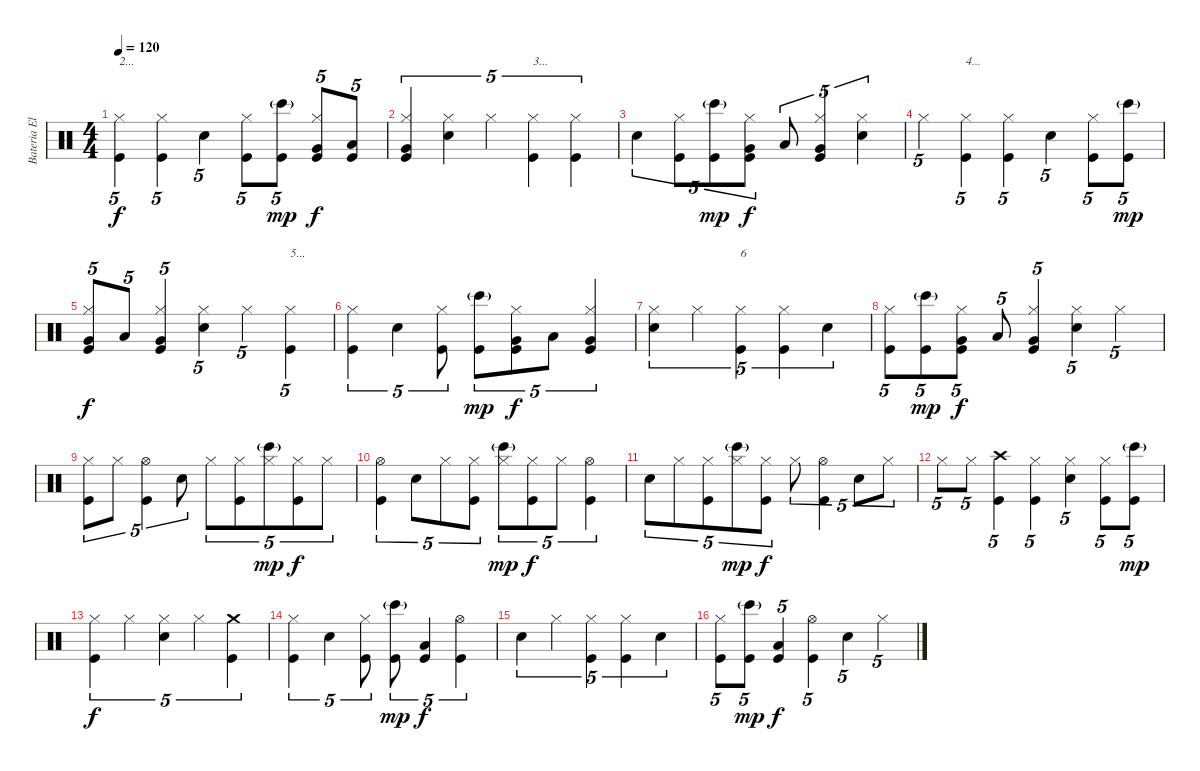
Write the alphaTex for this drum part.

\track ("Bateria Eletrônica" "Bateria El") {instrument percussion}
\staff {score}
\articulation defaults
\ts (4 4)
\tempo 120
\clef neutral
\ks c
("Kick (hit)" "Hi-Hat (closed)").4{tu (5 4) txt "2..." dy f} ("Kick (hit)" "Hi-Hat (closed)").4{tu (5 4)} "Snare (hit) 2".4{tu (5 4)} ("Kick (hit)" "Hi-Hat (closed)").8{tu (5 4)} ("Kick (hit)" "Bongo High (hit)"{g}).8{tu (5 4) dy mp} ("Kick (hit)" "Hi-Hat (closed)" "Very Low Tom (hit)").8{tu (5 4) dy f} ("Kick (hit)" "Low Tom (hit)").8{tu (5 4)} |
("Kick (hit)" "Hi-Hat (closed)" "Very Low Tom (hit)").4{tu (5 4)} ("Snare (hit) 2" "Hi-Hat (closed)").4{tu (5 4)} "Hi-Hat (closed)".4{tu (5 4)} ("Kick (hit)" "Hi-Hat (closed)").4{tu (5 4) txt "3..."} ("Kick (hit)" "Hi-Hat (closed)").4{tu (5 4)} |
"Snare (hit) 2".4{tu (5 4)} ("Kick (hit)" "Hi-Hat (closed)").8{tu (5 4)} ("Kick (hit)" "Bongo High (hit)"{g}).8{tu (5 4) dy mp} ("Kick (hit)" "Hi-Hat (closed)" "Very Low Tom (hit)").8{tu (5 4) dy f} "Low Tom (hit)".8{tu (5 4)} ("Kick (hit)" "Hi-Hat (closed)" "Very Low Tom (hit)").4{tu (5 4)} ("Snare (hit) 2" "Hi-Hat (closed)").4{tu (5 4)} |
"Hi-Hat (closed)".4{tu (5 4)} ("Kick (hit)" "Hi-Hat (closed)").4{tu (5 4) txt "4..."} ("Kick (hit)" "Hi-Hat (closed)").4{tu (5 4)} "Snare (hit) 2".4{tu (5 4)} ("Kick (hit)" "Hi-Hat (closed)").8{tu (5 4)} ("Kick (hit)" "Bongo High (hit)"{g}).8{tu (5 4) dy mp} |
("Kick (hit)" "Hi-Hat (closed)" "Very Low Tom (hit)").8{tu (5 4) dy f} "Low Tom (hit)".8{tu (5 4)} ("Kick (hit)" "Hi-Hat (closed)" "Very Low Tom (hit)").4{tu (5 4)} ("Snare (hit) 2" "Hi-Hat (closed)").4{tu (5 4)} "Hi-Hat (closed)".4{tu (5 4)} ("Kick (hit)" "Hi-Hat (closed)").4{tu (5 4) txt "5..."} |
("Kick (hit)" "Hi-Hat (closed)").4{tu (5 4)} "Snare (hit) 2".4{tu (5 4)} ("Kick (hit)" "Hi-Hat (closed)").8{tu (5 4)} ("Kick (hit)" "Bongo High (hit)"{g}).8{tu (5 4) dy mp} ("Kick (hit)" "Hi-Hat (closed)" "Very Low Tom (hit)").8{tu (5 4) dy f} "Low Tom (hit)".8{tu (5 4)} ("Kick (hit)" "Hi-Hat (closed)" "Very Low Tom (hit)").4{tu (5 4)} |
("Snare (hit) 2" "Hi-Hat (closed)").4{tu (5 4)} "Hi-Hat (closed)".4{tu (5 4)} ("Kick (hit)" "Hi-Hat (closed)").4{tu (5 4) txt "6"} ("Kick (hit)" "Hi-Hat (closed)").4{tu (5 4)} "Snare (hit) 2".4{tu (5 4)} |
("Kick (hit)" "Hi-Hat (closed)").8{tu (5 4)} ("Kick (hit)" "Bongo High (hit)"{g}).8{tu (5 4) dy mp} ("Kick (hit)" "Hi-Hat (closed)" "Very Low Tom (hit)").8{tu (5 4) dy f} "Low Tom (hit)".8{tu (5 4)} ("Kick (hit)" "Hi-Hat (closed)" "Very Low Tom (hit)").4{tu (5 4)} ("Snare (hit) 2" "Hi-Hat (closed)").4{tu (5 4)} "Hi-Hat (closed)".4{tu (5 4)} |
("Kick (hit)" "Hi-Hat (closed)").8{tu (5 4)} "Hi-Hat (closed)".8{tu (5 4)} ("Kick (hit)" "Hi-Hat (open)").4{tu (5 4)} "Snare (hit) 2".8{tu (5 4)} "Hi-Hat (closed)".8{tu (5 4)} ("Kick (hit)" "Hi-Hat (closed)").8{tu (5 4)} ("Bongo High (hit)"{g} "Hi-Hat (closed)").8{tu (5 4) dy mp} ("Kick (hit)" "Hi-Hat (closed)").8{tu (5 4) dy f} "Hi-Hat (closed)".8{tu (5 4)} |
("Kick (hit)" "Hi-Hat (open)").4{tu (5 4)} "Snare (hit) 2".8{tu (5 4)} "Hi-Hat (closed)".8{tu (5 4)} ("Kick (hit)" "Hi-Hat (closed)").8{tu (5 4)} ("Bongo High (hit)"{g} "Hi-Hat (closed)").8{tu (5 4) dy mp} ("Kick (hit)" "Hi-Hat (closed)").8{tu (5 4) dy f} "Hi-Hat (closed)".8{tu (5 4)} ("Kick (hit)" "Hi-Hat (open)").4{tu (5 4)} |
"Snare (hit) 2".8{tu (5 4)} "Hi-Hat (closed)".8{tu (5 4)} ("Kick (hit)" "Hi-Hat (closed)").8{tu (5 4)} ("Bongo High (hit)"{g} "Hi-Hat (closed)").8{tu (5 4) dy mp} ("Kick (hit)" "Hi-Hat (closed)").8{tu (5 4) dy f} "Hi-Hat (closed)".8{tu (5 4)} ("Kick (hit)" "Hi-Hat (open)").4{tu (5 4)} "Snare (hit) 2".8{tu (5 4)} "Hi-Hat (closed)".8{tu (5 4)} |
"Hi-Hat (closed)".8{tu (5 4)} "Hi-Hat (closed)".8{tu (5 4)} ("Kick (hit)" "Crash high (hit)").4{tu (5 4)} ("Kick (hit)" "Hi-Hat (closed)").4{tu (5 4)} ("Snare (hit) 2" "Hi-Hat (closed)").4{tu (5 4)} ("Kick (hit)" "Hi-Hat (closed)").8{tu (5 4)} ("Kick (hit)" "Bongo High (hit)"{g}).8{tu (5 4) dy mp} |
("Kick (hit)" "Hi-Hat (closed)").4{tu (5 4) dy f} "Hi-Hat (closed)".4{tu (5 4)} ("Snare (hit) 2" "Hi-Hat (closed)").4{tu (5 4)} "Hi-Hat (closed)".4{tu (5 4)} ("Kick (hit)" "Crash medium (hit)").4{tu (5 4)} |
("Kick (hit)" "Hi-Hat (closed)").4{tu (5 4)} "Snare (hit) 2".4{tu (5 4)} ("Kick (hit)" "Hi-Hat (closed)").8{tu (5 4)} ("Kick (hit)" "Bongo High (hit)"{g}).8{tu (5 4) dy mp} ("Kick (hit)" "Low Tom (hit)").4{tu (5 4) dy f} ("Kick (hit)" "Hi-Hat (open)").4{tu (5 4)} |
"Snare (hit) 2".4{tu (5 4)} "Hi-Hat (closed)".4{tu (5 4)} ("Kick (hit)" "Hi-Hat (closed)").4{tu (5 4)} ("Kick (hit)" "Hi-Hat (closed)").4{tu (5 4)} "Snare (hit) 2".4{tu (5 4)} |
("Kick (hit)" "Hi-Hat (closed)").8{tu (5 4)} ("Kick (hit)" "Bongo High (hit)"{g}).8{tu (5 4) dy mp} ("Kick (hit)" "Low Tom (hit)").4{tu (5 4) dy f} ("Kick (hit)" "Hi-Hat (open)").4{tu (5 4)} "Snare (hit) 2".4{tu (5 4)} "Hi-Hat (closed)".4{tu (5 4)}
